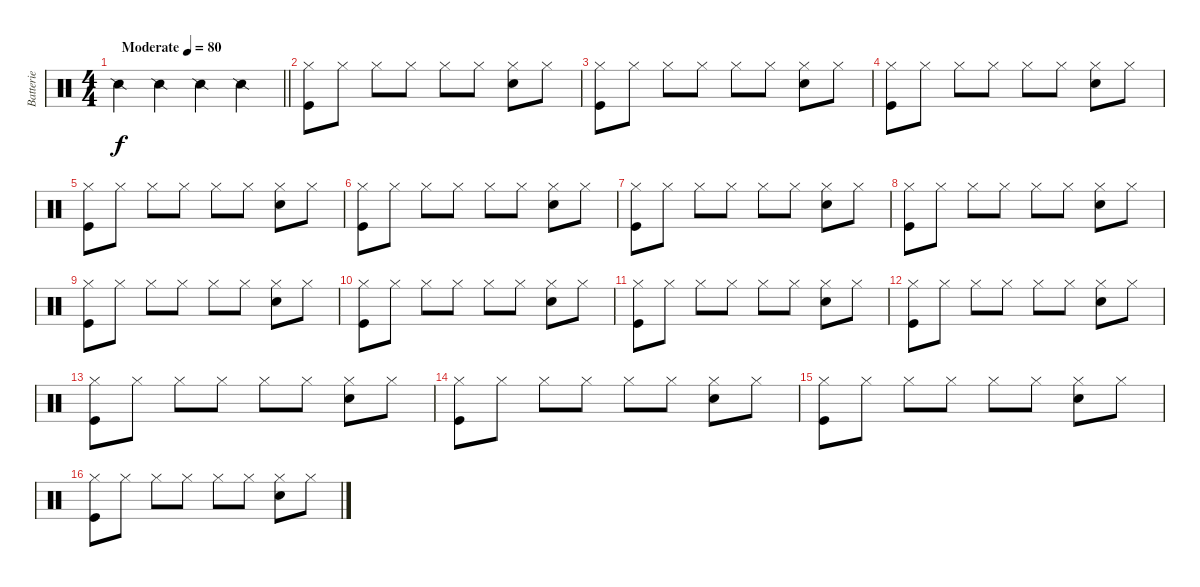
\track ("Batterie" "Batterie") {instrument percussion}
\staff {score}
\articulation defaults
\ts (4 4)
\tempo (80 "Moderate")
\clef neutral
\barLineRight lightlight
\ks c "Snare (side stick) 2".4{dy f} "Snare (side stick) 2".4 "Snare (side stick) 2".4 "Snare (side stick) 2".4
|
("Hi-Hat (closed)" "Kick (hit)").8 "Hi-Hat (closed)".8 "Hi-Hat (closed)".8 "Hi-Hat (closed)".8 "Hi-Hat (closed)".8 "Hi-Hat (closed)".8 ("Hi-Hat (closed)" "Snare (hit) 2").8 "Hi-Hat (closed)".8 |
("Hi-Hat (closed)" "Kick (hit)").8 "Hi-Hat (closed)".8 "Hi-Hat (closed)".8 "Hi-Hat (closed)".8 "Hi-Hat (closed)".8 "Hi-Hat (closed)".8 ("Hi-Hat (closed)" "Snare (hit) 2").8 "Hi-Hat (closed)".8 |
("Hi-Hat (closed)" "Kick (hit)").8 "Hi-Hat (closed)".8 "Hi-Hat (closed)".8 "Hi-Hat (closed)".8 "Hi-Hat (closed)".8 "Hi-Hat (closed)".8 ("Hi-Hat (closed)" "Snare (hit) 2").8 "Hi-Hat (closed)".8 |
("Hi-Hat (closed)" "Kick (hit)").8 "Hi-Hat (closed)".8 "Hi-Hat (closed)".8 "Hi-Hat (closed)".8 "Hi-Hat (closed)".8 "Hi-Hat (closed)".8 ("Hi-Hat (closed)" "Snare (hit) 2").8 "Hi-Hat (closed)".8 |
("Hi-Hat (closed)" "Kick (hit)").8 "Hi-Hat (closed)".8 "Hi-Hat (closed)".8 "Hi-Hat (closed)".8 "Hi-Hat (closed)".8 "Hi-Hat (closed)".8 ("Hi-Hat (closed)" "Snare (hit) 2").8 "Hi-Hat (closed)".8 |
("Hi-Hat (closed)" "Kick (hit)").8 "Hi-Hat (closed)".8 "Hi-Hat (closed)".8 "Hi-Hat (closed)".8 "Hi-Hat (closed)".8 "Hi-Hat (closed)".8 ("Hi-Hat (closed)" "Snare (hit) 2").8 "Hi-Hat (closed)".8 |
("Hi-Hat (closed)" "Kick (hit)").8 "Hi-Hat (closed)".8 "Hi-Hat (closed)".8 "Hi-Hat (closed)".8 "Hi-Hat (closed)".8 "Hi-Hat (closed)".8 ("Hi-Hat (closed)" "Snare (hit) 2").8 "Hi-Hat (closed)".8 |
("Hi-Hat (closed)" "Kick (hit)").8 "Hi-Hat (closed)".8 "Hi-Hat (closed)".8 "Hi-Hat (closed)".8 "Hi-Hat (closed)".8 "Hi-Hat (closed)".8 ("Hi-Hat (closed)" "Snare (hit) 2").8 "Hi-Hat (closed)".8 |
("Hi-Hat (closed)" "Kick (hit)").8 "Hi-Hat (closed)".8 "Hi-Hat (closed)".8 "Hi-Hat (closed)".8 "Hi-Hat (closed)".8 "Hi-Hat (closed)".8 ("Hi-Hat (closed)" "Snare (hit) 2").8 "Hi-Hat (closed)".8 |
("Hi-Hat (closed)" "Kick (hit)").8 "Hi-Hat (closed)".8 "Hi-Hat (closed)".8 "Hi-Hat (closed)".8 "Hi-Hat (closed)".8 "Hi-Hat (closed)".8 ("Hi-Hat (closed)" "Snare (hit) 2").8 "Hi-Hat (closed)".8 |
("Hi-Hat (closed)" "Kick (hit)").8 "Hi-Hat (closed)".8 "Hi-Hat (closed)".8 "Hi-Hat (closed)".8 "Hi-Hat (closed)".8 "Hi-Hat (closed)".8 ("Hi-Hat (closed)" "Snare (hit) 2").8 "Hi-Hat (closed)".8 |
("Hi-Hat (closed)" "Kick (hit)").8 "Hi-Hat (closed)".8 "Hi-Hat (closed)".8 "Hi-Hat (closed)".8 "Hi-Hat (closed)".8 "Hi-Hat (closed)".8 ("Hi-Hat (closed)" "Snare (hit) 2").8 "Hi-Hat (closed)".8 |
("Hi-Hat (closed)" "Kick (hit)").8 "Hi-Hat (closed)".8 "Hi-Hat (closed)".8 "Hi-Hat (closed)".8 "Hi-Hat (closed)".8 "Hi-Hat (closed)".8 ("Hi-Hat (closed)" "Snare (hit) 2").8 "Hi-Hat (closed)".8 |
("Hi-Hat (closed)" "Kick (hit)").8 "Hi-Hat (closed)".8 "Hi-Hat (closed)".8 "Hi-Hat (closed)".8 "Hi-Hat (closed)".8 "Hi-Hat (closed)".8 ("Hi-Hat (closed)" "Snare (hit) 2").8 "Hi-Hat (closed)".8 |
("Hi-Hat (closed)" "Kick (hit)").8 "Hi-Hat (closed)".8 "Hi-Hat (closed)".8 "Hi-Hat (closed)".8 "Hi-Hat (closed)".8 "Hi-Hat (closed)".8 ("Hi-Hat (closed)" "Snare (hit) 2").8 "Hi-Hat (closed)".8
